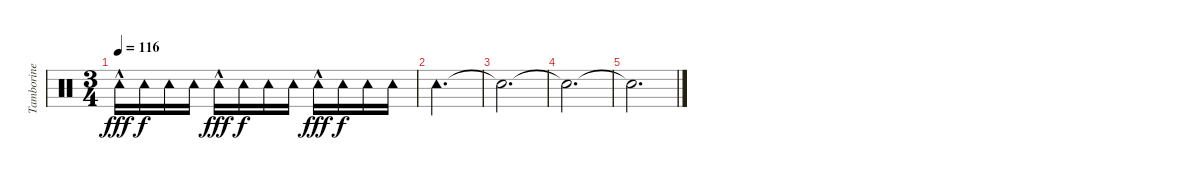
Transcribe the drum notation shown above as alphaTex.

\track ("Tamborine" "Tamborine") {instrument percussion}
\staff {score}
\articulation defaults
\ts (3 4)
\tempo 116
\clef neutral
\ks c "Tambourine (hit)"{hac}.16{dy fff} "Tambourine (hit)".16{dy f} "Tambourine (hit)".16 "Tambourine (hit)".16 "Tambourine (hit)"{hac}.16{dy fff} "Tambourine (hit)".16{dy f} "Tambourine (hit)".16 "Tambourine (hit)".16 "Tambourine (hit)"{hac}.16{dy fff} "Tambourine (hit)".16{dy f} "Tambourine (hit)".16 "Tambourine (hit)".16
|
"Tambourine (hit)".2{d} |
"Snare (hit)"{t}.2{d} |
"Snare (hit)"{t}.2{d} |
"Snare (hit)"{t}.2{d}
